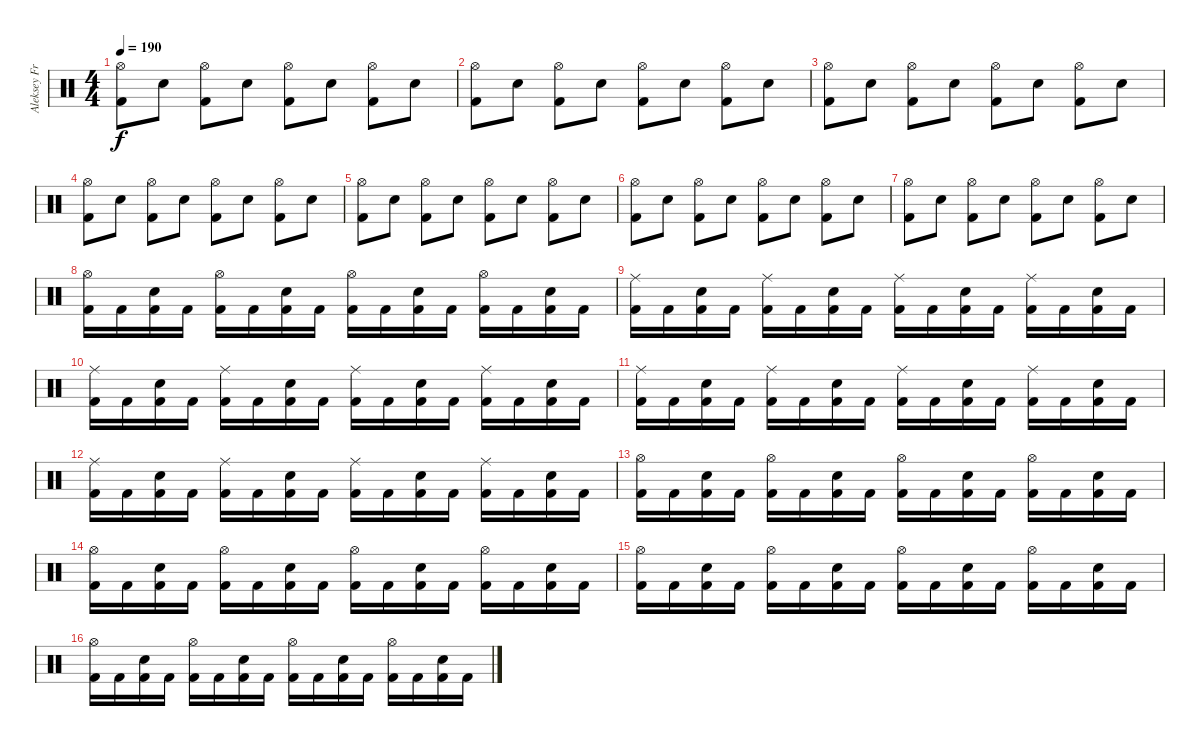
\track ("Aleksey Frolov" "Aleksey Fr") {instrument percussion}
\staff {score}
\articulation defaults
\ts (4 4)
\tempo 190
\clef neutral
\ks c
("Kick (hit) 2" "Hi-Hat (open)").8{dy f} "Electric Snare (hit)".8 ("Kick (hit) 2" "Hi-Hat (open)").8 "Electric Snare (hit)".8 ("Kick (hit) 2" "Hi-Hat (open)").8 "Electric Snare (hit)".8 ("Kick (hit) 2" "Hi-Hat (open)").8 "Electric Snare (hit)".8 |
("Kick (hit) 2" "Hi-Hat (open)").8 "Electric Snare (hit)".8 ("Kick (hit) 2" "Hi-Hat (open)").8 "Electric Snare (hit)".8 ("Kick (hit) 2" "Hi-Hat (open)").8 "Electric Snare (hit)".8 ("Kick (hit) 2" "Hi-Hat (open)").8 "Electric Snare (hit)".8 |
("Kick (hit) 2" "Hi-Hat (open)").8 "Electric Snare (hit)".8 ("Kick (hit) 2" "Hi-Hat (open)").8 "Electric Snare (hit)".8 ("Kick (hit) 2" "Hi-Hat (open)").8 "Electric Snare (hit)".8 ("Kick (hit) 2" "Hi-Hat (open)").8 "Electric Snare (hit)".8 |
("Kick (hit) 2" "Hi-Hat (open)").8 "Electric Snare (hit)".8 ("Kick (hit) 2" "Hi-Hat (open)").8 "Electric Snare (hit)".8 ("Kick (hit) 2" "Hi-Hat (open)").8 "Electric Snare (hit)".8 ("Kick (hit) 2" "Hi-Hat (open)").8 "Electric Snare (hit)".8 |
("Kick (hit) 2" "Hi-Hat (open)").8 "Electric Snare (hit)".8 ("Kick (hit) 2" "Hi-Hat (open)").8 "Electric Snare (hit)".8 ("Kick (hit) 2" "Hi-Hat (open)").8 "Electric Snare (hit)".8 ("Kick (hit) 2" "Hi-Hat (open)").8 "Electric Snare (hit)".8 |
("Kick (hit) 2" "Hi-Hat (open)").8 "Electric Snare (hit)".8 ("Kick (hit) 2" "Hi-Hat (open)").8 "Electric Snare (hit)".8 ("Kick (hit) 2" "Hi-Hat (open)").8 "Electric Snare (hit)".8 ("Kick (hit) 2" "Hi-Hat (open)").8 "Electric Snare (hit)".8 |
("Kick (hit) 2" "Hi-Hat (open)").8 "Electric Snare (hit)".8 ("Kick (hit) 2" "Hi-Hat (open)").8 "Electric Snare (hit)".8 ("Kick (hit) 2" "Hi-Hat (open)").8 "Electric Snare (hit)".8 ("Kick (hit) 2" "Hi-Hat (open)").8 "Electric Snare (hit)".8 |
("Kick (hit) 2" "Hi-Hat (open)").16 "Kick (hit) 2".16 ("Kick (hit) 2" "Electric Snare (hit)").16 "Kick (hit) 2".16 ("Kick (hit) 2" "Hi-Hat (open)").16 "Kick (hit) 2".16 ("Kick (hit) 2" "Electric Snare (hit)").16 "Kick (hit) 2".16 ("Kick (hit) 2" "Hi-Hat (open)").16 "Kick (hit) 2".16 ("Kick (hit) 2" "Electric Snare (hit)").16 "Kick (hit) 2".16 ("Kick (hit) 2" "Hi-Hat (open)").16 "Kick (hit) 2".16 ("Kick (hit) 2" "Electric Snare (hit)").16 "Kick (hit) 2".16 |
("Kick (hit) 2" "Ride (middle)").16 "Kick (hit) 2".16 ("Kick (hit) 2" "Electric Snare (hit)").16 "Kick (hit) 2".16 ("Kick (hit) 2" "Ride (middle)").16 "Kick (hit) 2".16 ("Kick (hit) 2" "Electric Snare (hit)").16 "Kick (hit) 2".16 ("Kick (hit) 2" "Ride (middle)").16 "Kick (hit) 2".16 ("Kick (hit) 2" "Electric Snare (hit)").16 "Kick (hit) 2".16 ("Kick (hit) 2" "Ride (middle)").16 "Kick (hit) 2".16 ("Kick (hit) 2" "Electric Snare (hit)").16 "Kick (hit) 2".16 |
("Kick (hit) 2" "Ride (middle)").16 "Kick (hit) 2".16 ("Kick (hit) 2" "Electric Snare (hit)").16 "Kick (hit) 2".16 ("Kick (hit) 2" "Ride (middle)").16 "Kick (hit) 2".16 ("Kick (hit) 2" "Electric Snare (hit)").16 "Kick (hit) 2".16 ("Kick (hit) 2" "Ride (middle)").16 "Kick (hit) 2".16 ("Kick (hit) 2" "Electric Snare (hit)").16 "Kick (hit) 2".16 ("Kick (hit) 2" "Ride (middle)").16 "Kick (hit) 2".16 ("Kick (hit) 2" "Electric Snare (hit)").16 "Kick (hit) 2".16 |
("Kick (hit) 2" "Ride (middle)").16 "Kick (hit) 2".16 ("Kick (hit) 2" "Electric Snare (hit)").16 "Kick (hit) 2".16 ("Kick (hit) 2" "Ride (middle)").16 "Kick (hit) 2".16 ("Kick (hit) 2" "Electric Snare (hit)").16 "Kick (hit) 2".16 ("Kick (hit) 2" "Ride (middle)").16 "Kick (hit) 2".16 ("Kick (hit) 2" "Electric Snare (hit)").16 "Kick (hit) 2".16 ("Kick (hit) 2" "Ride (middle)").16 "Kick (hit) 2".16 ("Kick (hit) 2" "Electric Snare (hit)").16 "Kick (hit) 2".16 |
("Kick (hit) 2" "Ride (middle)").16 "Kick (hit) 2".16 ("Kick (hit) 2" "Electric Snare (hit)").16 "Kick (hit) 2".16 ("Kick (hit) 2" "Ride (middle)").16 "Kick (hit) 2".16 ("Kick (hit) 2" "Electric Snare (hit)").16 "Kick (hit) 2".16 ("Kick (hit) 2" "Ride (middle)").16 "Kick (hit) 2".16 ("Kick (hit) 2" "Electric Snare (hit)").16 "Kick (hit) 2".16 ("Kick (hit) 2" "Ride (middle)").16 "Kick (hit) 2".16 ("Kick (hit) 2" "Electric Snare (hit)").16 "Kick (hit) 2".16 |
("Kick (hit) 2" "Hi-Hat (open)").16 "Kick (hit) 2".16 ("Kick (hit) 2" "Electric Snare (hit)").16 "Kick (hit) 2".16 ("Kick (hit) 2" "Hi-Hat (open)").16 "Kick (hit) 2".16 ("Kick (hit) 2" "Electric Snare (hit)").16 "Kick (hit) 2".16 ("Kick (hit) 2" "Hi-Hat (open)").16 "Kick (hit) 2".16 ("Kick (hit) 2" "Electric Snare (hit)").16 "Kick (hit) 2".16 ("Kick (hit) 2" "Hi-Hat (open)").16 "Kick (hit) 2".16 ("Kick (hit) 2" "Electric Snare (hit)").16 "Kick (hit) 2".16 |
("Kick (hit) 2" "Hi-Hat (open)").16 "Kick (hit) 2".16 ("Kick (hit) 2" "Electric Snare (hit)").16 "Kick (hit) 2".16 ("Kick (hit) 2" "Hi-Hat (open)").16 "Kick (hit) 2".16 ("Kick (hit) 2" "Electric Snare (hit)").16 "Kick (hit) 2".16 ("Kick (hit) 2" "Hi-Hat (open)").16 "Kick (hit) 2".16 ("Kick (hit) 2" "Electric Snare (hit)").16 "Kick (hit) 2".16 ("Kick (hit) 2" "Hi-Hat (open)").16 "Kick (hit) 2".16 ("Kick (hit) 2" "Electric Snare (hit)").16 "Kick (hit) 2".16 |
("Kick (hit) 2" "Hi-Hat (open)").16 "Kick (hit) 2".16 ("Kick (hit) 2" "Electric Snare (hit)").16 "Kick (hit) 2".16 ("Kick (hit) 2" "Hi-Hat (open)").16 "Kick (hit) 2".16 ("Kick (hit) 2" "Electric Snare (hit)").16 "Kick (hit) 2".16 ("Kick (hit) 2" "Hi-Hat (open)").16 "Kick (hit) 2".16 ("Kick (hit) 2" "Electric Snare (hit)").16 "Kick (hit) 2".16 ("Kick (hit) 2" "Hi-Hat (open)").16 "Kick (hit) 2".16 ("Kick (hit) 2" "Electric Snare (hit)").16 "Kick (hit) 2".16 |
("Kick (hit) 2" "Hi-Hat (open)").16 "Kick (hit) 2".16 ("Kick (hit) 2" "Electric Snare (hit)").16 "Kick (hit) 2".16 ("Kick (hit) 2" "Hi-Hat (open)").16 "Kick (hit) 2".16 ("Kick (hit) 2" "Electric Snare (hit)").16 "Kick (hit) 2".16 ("Kick (hit) 2" "Hi-Hat (open)").16 "Kick (hit) 2".16 ("Kick (hit) 2" "Electric Snare (hit)").16 "Kick (hit) 2".16 ("Kick (hit) 2" "Hi-Hat (open)").16 "Kick (hit) 2".16 ("Kick (hit) 2" "Electric Snare (hit)").16 "Kick (hit) 2".16
